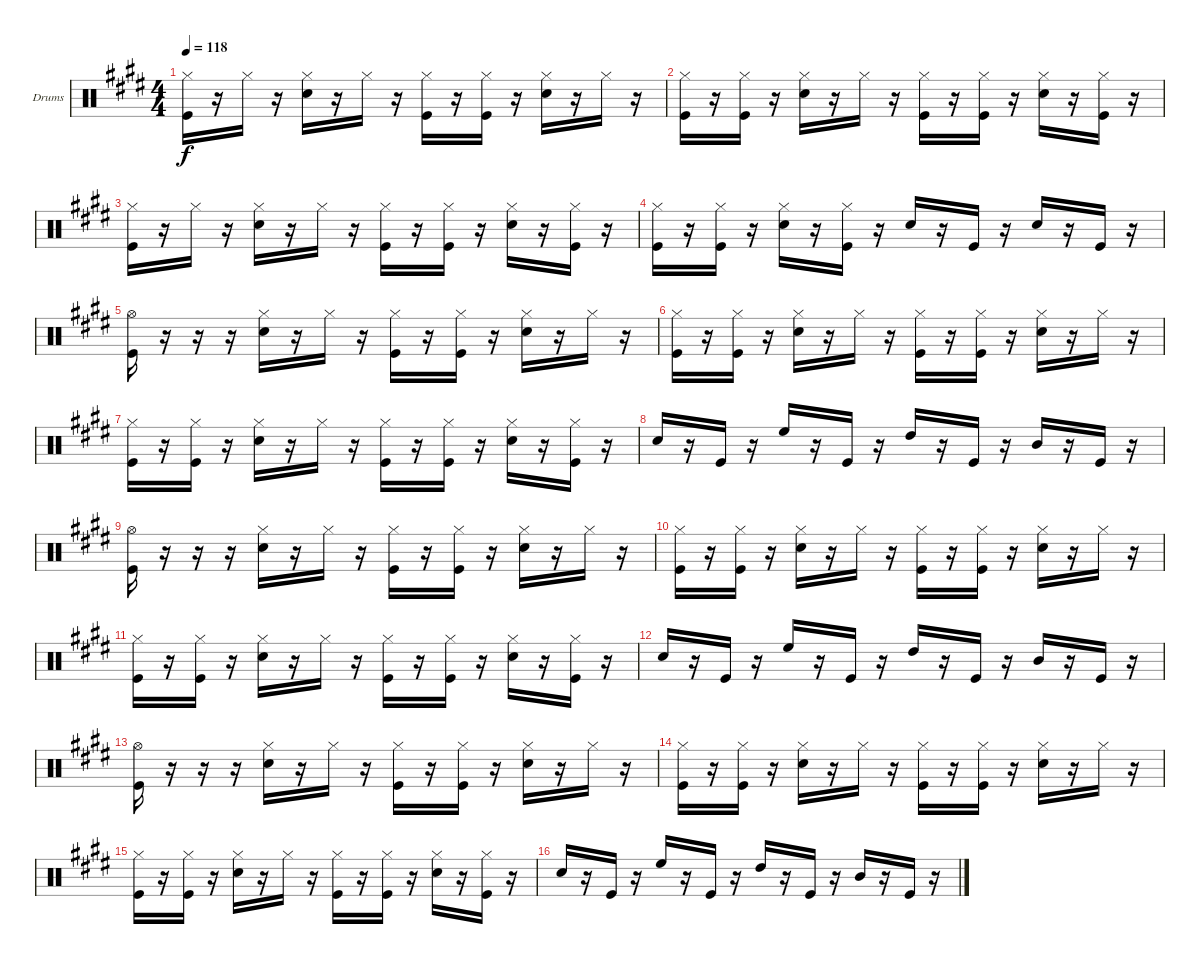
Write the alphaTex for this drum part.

\bracketExtendMode groupsimilarinstruments
\firstSystemTrackNameOrientation horizontal
\otherSystemsTrackNameOrientation horizontal
\track ("Drumkit" "Drums") {instrument percussion}
\staff {score}
\articulation defaults
\ts (4 4)
\tempo 118
\clef neutral
\ks e
("Hi-Hat (closed)" "Kick (hit)").16{dy f} r.16 "Hi-Hat (closed)".16 r.16 ("Hi-Hat (closed)" "Snare (hit) 2").16 r.16 "Hi-Hat (closed)".16 r.16 ("Hi-Hat (closed)" "Kick (hit)").16 r.16 ("Hi-Hat (closed)" "Kick (hit)").16 r.16 ("Hi-Hat (closed)" "Snare (hit) 2").16 r.16 "Hi-Hat (closed)".16 r.16 |
("Hi-Hat (closed)" "Kick (hit)").16 r.16 ("Hi-Hat (closed)" "Kick (hit)").16 r.16 ("Hi-Hat (closed)" "Snare (hit) 2").16 r.16 "Hi-Hat (closed)".16 r.16 ("Hi-Hat (closed)" "Kick (hit)").16 r.16 ("Hi-Hat (closed)" "Kick (hit)").16 r.16 ("Hi-Hat (closed)" "Snare (hit) 2").16 r.16 ("Hi-Hat (closed)" "Kick (hit)").16 r.16 |
("Hi-Hat (closed)" "Kick (hit)").16 r.16 "Hi-Hat (closed)".16 r.16 ("Hi-Hat (closed)" "Snare (hit) 2").16 r.16 "Hi-Hat (closed)".16 r.16 ("Hi-Hat (closed)" "Kick (hit)").16 r.16 ("Hi-Hat (closed)" "Kick (hit)").16 r.16 ("Hi-Hat (closed)" "Snare (hit) 2").16 r.16 ("Hi-Hat (closed)" "Kick (hit)").16 r.16 |
("Hi-Hat (closed)" "Kick (hit)").16 r.16 ("Hi-Hat (closed)" "Kick (hit)").16 r.16 ("Hi-Hat (closed)" "Snare (hit) 2").16 r.16 ("Hi-Hat (closed)" "Kick (hit)").16 r.16 "Snare (hit) 2".16 r.16 "Kick (hit)".16 r.16 "Snare (hit) 2".16 r.16 "Kick (hit)".16 r.16 |
("Hi-Hat (open)" "Kick (hit)").16 r.16 r.16 r.16 ("Hi-Hat (closed)" "Snare (hit) 2").16 r.16 "Hi-Hat (closed)".16 r.16 ("Hi-Hat (closed)" "Kick (hit)").16 r.16 ("Hi-Hat (closed)" "Kick (hit)").16 r.16 ("Hi-Hat (closed)" "Snare (hit) 2").16 r.16 "Hi-Hat (closed)".16 r.16 |
("Hi-Hat (closed)" "Kick (hit)").16 r.16 ("Hi-Hat (closed)" "Kick (hit)").16 r.16 ("Hi-Hat (closed)" "Snare (hit) 2").16 r.16 "Hi-Hat (closed)".16 r.16 ("Hi-Hat (closed)" "Kick (hit)").16 r.16 ("Hi-Hat (closed)" "Kick (hit)").16 r.16 ("Hi-Hat (closed)" "Snare (hit) 2").16 r.16 "Hi-Hat (closed)".16 r.16 |
("Hi-Hat (closed)" "Kick (hit)").16 r.16 ("Hi-Hat (closed)" "Kick (hit)").16 r.16 ("Hi-Hat (closed)" "Snare (hit) 2").16 r.16 "Hi-Hat (closed)".16 r.16 ("Hi-Hat (closed)" "Kick (hit)").16 r.16 ("Hi-Hat (closed)" "Kick (hit)").16 r.16 ("Hi-Hat (closed)" "Snare (hit) 2").16 r.16 ("Hi-Hat (closed)" "Kick (hit)").16 r.16 |
"Snare (hit) 2".16 r.16 "Kick (hit)".16 r.16 "High Floor Tom (hit)".16 r.16 "Kick (hit)".16 r.16 "High Tom (hit)".16 r.16 "Kick (hit)".16 r.16 "Mid Tom (hit)".16 r.16 "Kick (hit)".16 r.16 |
("Hi-Hat (open)" "Kick (hit)").16 r.16 r.16 r.16 ("Hi-Hat (closed)" "Snare (hit) 2").16 r.16 "Hi-Hat (closed)".16 r.16 ("Hi-Hat (closed)" "Kick (hit)").16 r.16 ("Hi-Hat (closed)" "Kick (hit)").16 r.16 ("Hi-Hat (closed)" "Snare (hit) 2").16 r.16 "Hi-Hat (closed)".16 r.16 |
("Hi-Hat (closed)" "Kick (hit)").16 r.16 ("Hi-Hat (closed)" "Kick (hit)").16 r.16 ("Hi-Hat (closed)" "Snare (hit) 2").16 r.16 "Hi-Hat (closed)".16 r.16 ("Hi-Hat (closed)" "Kick (hit)").16 r.16 ("Hi-Hat (closed)" "Kick (hit)").16 r.16 ("Hi-Hat (closed)" "Snare (hit) 2").16 r.16 "Hi-Hat (closed)".16 r.16 |
("Hi-Hat (closed)" "Kick (hit)").16 r.16 ("Hi-Hat (closed)" "Kick (hit)").16 r.16 ("Hi-Hat (closed)" "Snare (hit) 2").16 r.16 "Hi-Hat (closed)".16 r.16 ("Hi-Hat (closed)" "Kick (hit)").16 r.16 ("Hi-Hat (closed)" "Kick (hit)").16 r.16 ("Hi-Hat (closed)" "Snare (hit) 2").16 r.16 ("Hi-Hat (closed)" "Kick (hit)").16 r.16 |
"Snare (hit) 2".16 r.16 "Kick (hit)".16 r.16 "High Floor Tom (hit)".16 r.16 "Kick (hit)".16 r.16 "High Tom (hit)".16 r.16 "Kick (hit)".16 r.16 "Mid Tom (hit)".16 r.16 "Kick (hit)".16 r.16 |
("Hi-Hat (open)" "Kick (hit)").16 r.16 r.16 r.16 ("Hi-Hat (closed)" "Snare (hit) 2").16 r.16 "Hi-Hat (closed)".16 r.16 ("Hi-Hat (closed)" "Kick (hit)").16 r.16 ("Hi-Hat (closed)" "Kick (hit)").16 r.16 ("Hi-Hat (closed)" "Snare (hit) 2").16 r.16 "Hi-Hat (closed)".16 r.16 |
("Hi-Hat (closed)" "Kick (hit)").16 r.16 ("Hi-Hat (closed)" "Kick (hit)").16 r.16 ("Hi-Hat (closed)" "Snare (hit) 2").16 r.16 "Hi-Hat (closed)".16 r.16 ("Hi-Hat (closed)" "Kick (hit)").16 r.16 ("Hi-Hat (closed)" "Kick (hit)").16 r.16 ("Hi-Hat (closed)" "Snare (hit) 2").16 r.16 "Hi-Hat (closed)".16 r.16 |
("Hi-Hat (closed)" "Kick (hit)").16 r.16 ("Hi-Hat (closed)" "Kick (hit)").16 r.16 ("Hi-Hat (closed)" "Snare (hit) 2").16 r.16 "Hi-Hat (closed)".16 r.16 ("Hi-Hat (closed)" "Kick (hit)").16 r.16 ("Hi-Hat (closed)" "Kick (hit)").16 r.16 ("Hi-Hat (closed)" "Snare (hit) 2").16 r.16 ("Hi-Hat (closed)" "Kick (hit)").16 r.16 |
"Snare (hit) 2".16 r.16 "Kick (hit)".16 r.16 "High Floor Tom (hit)".16 r.16 "Kick (hit)".16 r.16 "High Tom (hit)".16 r.16 "Kick (hit)".16 r.16 "Mid Tom (hit)".16 r.16 "Kick (hit)".16 r.16
